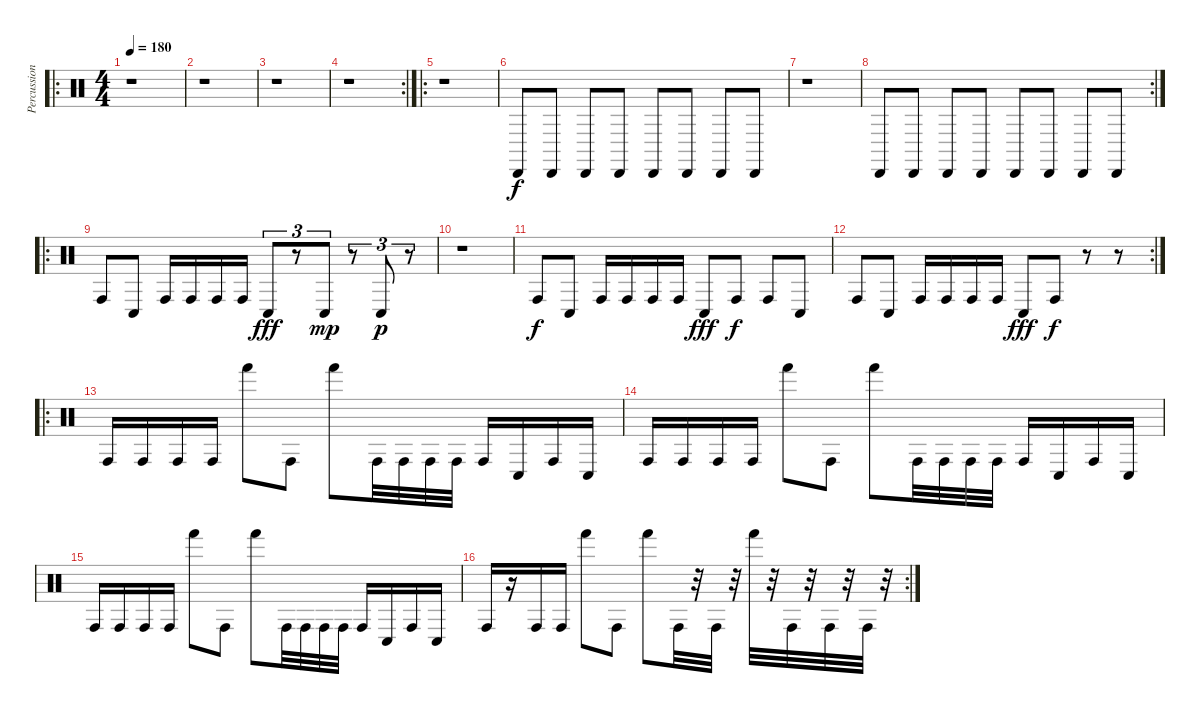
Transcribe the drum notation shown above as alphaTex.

\track ("Percussions" "Percussion") {instrument percussion}
\staff {score}
\articulation defaults
\ro
\ts (4 4)
\tempo 180
\clef neutral
\ks c
r.1{dy f} |
r.1 |
r.1 |
\rc 2
r.1 |
\ro
r.1 |
"Cabasa (hit)".8 "Cabasa (hit)".8 "Cabasa (hit)".8 "Cabasa (hit)".8 "Cabasa (hit)".8 "Cabasa (hit)".8 "Cabasa (hit)".8 "Cabasa (hit)".8 |
r.1 |
\rc 2 "Cabasa (hit)".8 "Cabasa (hit)".8 "Cabasa (hit)".8 "Cabasa (hit)".8 "Cabasa (hit)".8 "Cabasa (hit)".8 "Cabasa (hit)".8 "Cabasa (hit)".8
|
\ro "Conga high (hit)".8 "Conga low (hit)".8 "Conga high (hit)".16 "Conga high (hit)".16 "Conga high (hit)".16 "Conga high (hit)".16 "Conga low (hit)".8{tu (3 2) dy fff}
r.8{tu (3 2)} "Conga low (hit)".8{tu (3 2) dy mp} r.8{tu (3 2)} "Conga low (hit)".8{tu (3 2) dy p} r.8{tu (3 2)} |
r.1 |
"Conga high (hit)".8{dy f} "Conga low (hit)".8 "Conga high (hit)".16 "Conga high (hit)".16 "Conga high (hit)".16 "Conga high (hit)".16 "Conga low (hit)".8{dy fff} "Conga high (hit)".8{dy f} "Conga high (hit)".8 "Conga low (hit)".8 |
\rc 2 "Conga high (hit)".8 "Conga low (hit)".8 "Conga high (hit)".16 "Conga high (hit)".16 "Conga high (hit)".16 "Conga high (hit)".16 "Conga low (hit)".8{dy fff} "Conga high (hit)".8{dy f}
r.8 r.8 |
\ro "Conga high (hit)".16 "Conga high (hit)".16 "Conga high (hit)".16 "Conga high (hit)".16 "Hand (hit)".8 "Conga high (hit)".8 "Hand (hit)".8 "Conga high (hit)".32 "Conga high (hit)".32 "Conga high (hit)".32 "Conga high (hit)".32 "Conga high (hit)".16 "Conga low (hit)".16 "Conga high (hit)".16 "Conga low (hit)".16
|
"Conga high (hit)".16 "Conga high (hit)".16 "Conga high (hit)".16 "Conga high (hit)".16 "Hand (hit)".8 "Conga high (hit)".8 "Hand (hit)".8 "Conga high (hit)".32 "Conga high (hit)".32 "Conga high (hit)".32 "Conga high (hit)".32 "Conga high (hit)".16 "Conga low (hit)".16 "Conga high (hit)".16 "Conga low (hit)".16 |
"Conga high (hit)".16 "Conga high (hit)".16 "Conga high (hit)".16 "Conga high (hit)".16 "Hand (hit)".8 "Conga high (hit)".8 "Hand (hit)".8 "Conga high (hit)".32 "Conga high (hit)".32 "Conga high (hit)".32 "Conga high (hit)".32 "Conga high (hit)".16 "Conga low (hit)".16 "Conga high (hit)".16 "Conga low (hit)".16 |
\rc 2 "Conga high (hit)".16
r.16 "Conga high (hit)".16 "Conga high (hit)".16 "Hand (hit)".8 "Conga high (hit)".8 "Hand (hit)".8 "Conga high (hit)".32 r.32 "Conga high (hit)".32 r.32 "Hand (hit)".32 r.32 "Conga high (hit)".32 r.32 "Conga high (hit)".32 r.32 "Conga high (hit)".32 r.32
